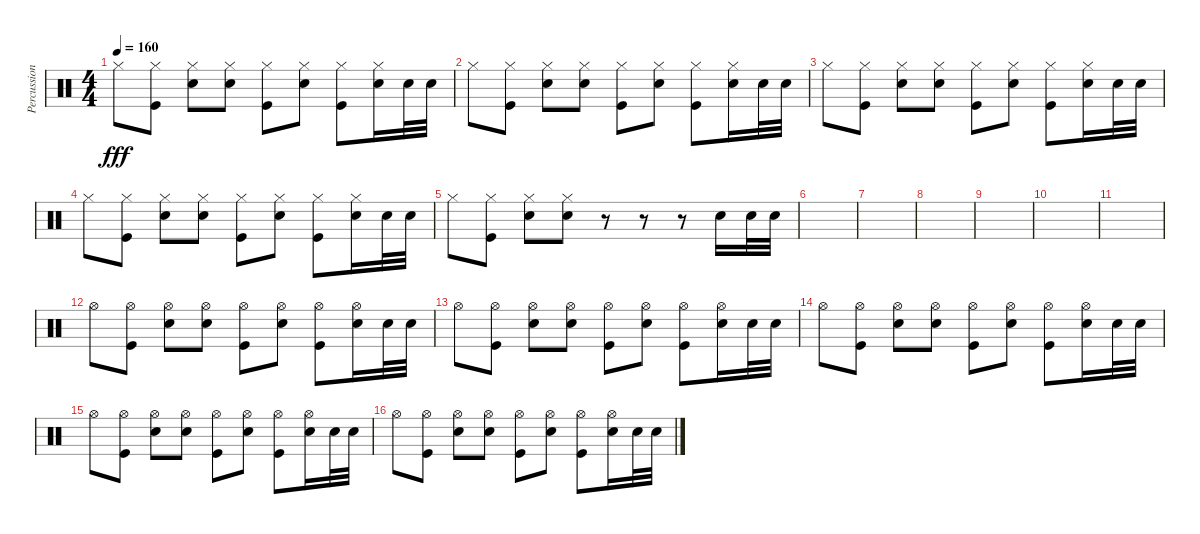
\track ("Percussion" "Percussion") {instrument percussion}
\staff {score}
\articulation defaults
\ts (4 4)
\tempo 160
\clef neutral
\ks c "Hi-Hat (closed)".8{dy fff}
("Kick (hit)" "Hi-Hat (closed)").8 ("Snare (hit) 2" "Hi-Hat (closed)").8 ("Snare (hit) 2" "Hi-Hat (closed)").8 ("Kick (hit)" "Hi-Hat (closed)").8 ("Snare (hit) 2" "Hi-Hat (closed)").8 ("Kick (hit)" "Hi-Hat (closed)").8 ("Snare (hit) 2" "Hi-Hat (closed)").16 "Snare (hit) 2".32 "Snare (hit) 2".32 |
"Hi-Hat (closed)".8 ("Kick (hit)" "Hi-Hat (closed)").8 ("Snare (hit) 2" "Hi-Hat (closed)").8 ("Snare (hit) 2" "Hi-Hat (closed)").8 ("Kick (hit)" "Hi-Hat (closed)").8 ("Snare (hit) 2" "Hi-Hat (closed)").8 ("Kick (hit)" "Hi-Hat (closed)").8 ("Snare (hit) 2" "Hi-Hat (closed)").16 "Snare (hit) 2".32 "Snare (hit) 2".32 |
"Hi-Hat (closed)".8 ("Kick (hit)" "Hi-Hat (closed)").8 ("Snare (hit) 2" "Hi-Hat (closed)").8 ("Snare (hit) 2" "Hi-Hat (closed)").8 ("Kick (hit)" "Hi-Hat (closed)").8 ("Snare (hit) 2" "Hi-Hat (closed)").8 ("Kick (hit)" "Hi-Hat (closed)").8 ("Snare (hit) 2" "Hi-Hat (closed)").16 "Snare (hit) 2".32 "Snare (hit) 2".32 |
"Hi-Hat (closed)".8 ("Kick (hit)" "Hi-Hat (closed)").8 ("Snare (hit) 2" "Hi-Hat (closed)").8 ("Snare (hit) 2" "Hi-Hat (closed)").8 ("Kick (hit)" "Hi-Hat (closed)").8 ("Snare (hit) 2" "Hi-Hat (closed)").8 ("Kick (hit)" "Hi-Hat (closed)").8 ("Snare (hit) 2" "Hi-Hat (closed)").16 "Snare (hit) 2".32 "Snare (hit) 2".32 |
"Hi-Hat (closed)".8 ("Kick (hit)" "Hi-Hat (closed)").8 ("Snare (hit) 2" "Hi-Hat (closed)").8 ("Snare (hit) 2" "Hi-Hat (closed)").8 r.8 r.8 r.8 "Snare (hit) 2".16 "Snare (hit) 2".32 "Snare (hit) 2".32 |
|
|
|
|
|
|
"Hi-Hat (open)".8 ("Kick (hit)" "Hi-Hat (open)").8 ("Snare (hit) 2" "Hi-Hat (open)").8 ("Snare (hit) 2" "Hi-Hat (open)").8 ("Kick (hit)" "Hi-Hat (open)").8 ("Snare (hit) 2" "Hi-Hat (open)").8 ("Kick (hit)" "Hi-Hat (open)").8 ("Snare (hit) 2" "Hi-Hat (open)").16 "Snare (hit) 2".32 "Snare (hit) 2".32 |
"Hi-Hat (open)".8 ("Kick (hit)" "Hi-Hat (open)").8 ("Snare (hit) 2" "Hi-Hat (open)").8 ("Snare (hit) 2" "Hi-Hat (open)").8 ("Kick (hit)" "Hi-Hat (open)").8 ("Snare (hit) 2" "Hi-Hat (open)").8 ("Kick (hit)" "Hi-Hat (open)").8 ("Snare (hit) 2" "Hi-Hat (open)").16 "Snare (hit) 2".32 "Snare (hit) 2".32 |
"Hi-Hat (open)".8 ("Kick (hit)" "Hi-Hat (open)").8 ("Snare (hit) 2" "Hi-Hat (open)").8 ("Snare (hit) 2" "Hi-Hat (open)").8 ("Kick (hit)" "Hi-Hat (open)").8 ("Snare (hit) 2" "Hi-Hat (open)").8 ("Kick (hit)" "Hi-Hat (open)").8 ("Snare (hit) 2" "Hi-Hat (open)").16 "Snare (hit) 2".32 "Snare (hit) 2".32 |
"Hi-Hat (open)".8 ("Kick (hit)" "Hi-Hat (open)").8 ("Snare (hit) 2" "Hi-Hat (open)").8 ("Snare (hit) 2" "Hi-Hat (open)").8 ("Kick (hit)" "Hi-Hat (open)").8 ("Snare (hit) 2" "Hi-Hat (open)").8 ("Kick (hit)" "Hi-Hat (open)").8 ("Snare (hit) 2" "Hi-Hat (open)").16 "Snare (hit) 2".32 "Snare (hit) 2".32 |
"Hi-Hat (open)".8 ("Kick (hit)" "Hi-Hat (open)").8 ("Snare (hit) 2" "Hi-Hat (open)").8 ("Snare (hit) 2" "Hi-Hat (open)").8 ("Kick (hit)" "Hi-Hat (open)").8 ("Snare (hit) 2" "Hi-Hat (open)").8 ("Kick (hit)" "Hi-Hat (open)").8 ("Snare (hit) 2" "Hi-Hat (open)").16 "Snare (hit) 2".32 "Snare (hit) 2".32
